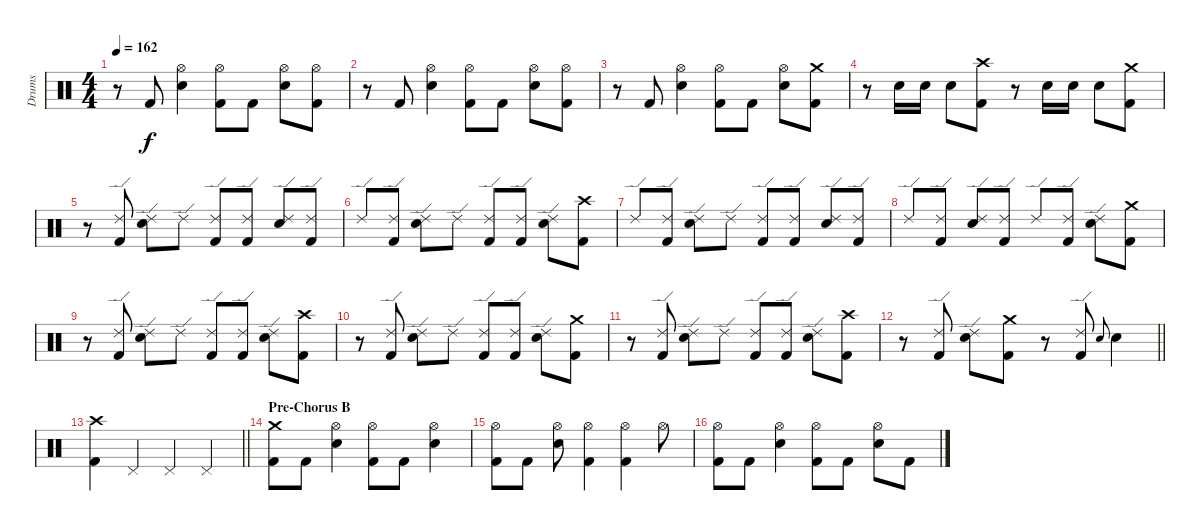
\track ("Drums" "Drums") {instrument percussion}
\staff {score}
\articulation defaults
\ts (4 4)
\tempo 162
\clef neutral
\ks c
r.8{dy f} "Kick (hit) 2".8 ("Hi-Hat (open)" "Snare (hit) 2").4 ("Hi-Hat (open)" "Kick (hit) 2").8 "Kick (hit) 2".8 ("Hi-Hat (open)" "Snare (hit) 2").8 ("Hi-Hat (open)" "Kick (hit) 2").8 |
r.8 "Kick (hit) 2".8 ("Hi-Hat (open)" "Snare (hit) 2").4 ("Hi-Hat (open)" "Kick (hit) 2").8 "Kick (hit) 2".8 ("Hi-Hat (open)" "Snare (hit) 2").8 ("Hi-Hat (open)" "Kick (hit) 2").8 |
r.8 "Kick (hit) 2".8 ("Hi-Hat (open)" "Snare (hit) 2").4 ("Hi-Hat (open)" "Kick (hit) 2").8 "Kick (hit) 2".8 ("Hi-Hat (open)" "Snare (hit) 2").8 ("Crash medium (hit)" "Kick (hit) 2").8 |
r.8 "Snare (hit) 2".16 "Snare (hit) 2".16 "Snare (hit) 2".8 ("Crash high (hit)" "Kick (hit) 2").8 r.8 "Snare (hit) 2".16 "Snare (hit) 2".16 "Snare (hit) 2".8 ("Crash medium (hit)" "Kick (hit) 2").8 |
r.8 ("Ride (edge) 2" "Kick (hit) 2").8 ("Ride (edge) 2" "Snare (hit) 2").8 "Ride (edge) 2".8 ("Ride (edge) 2" "Kick (hit) 2").8 ("Ride (edge) 2" "Kick (hit) 2").8 ("Ride (edge) 2" "Snare (hit) 2").8 ("Ride (edge) 2" "Kick (hit) 2").8 |
"Ride (edge) 2".8 ("Ride (edge) 2" "Kick (hit) 2").8 ("Ride (edge) 2" "Snare (hit) 2").8 "Ride (edge) 2".8 ("Ride (edge) 2" "Kick (hit) 2").8 ("Ride (edge) 2" "Kick (hit) 2").8 ("Ride (edge) 2" "Snare (hit) 2").8 ("Crash high (hit)" "Kick (hit) 2").8 |
"Ride (edge) 2".8 ("Ride (edge) 2" "Kick (hit) 2").8 ("Ride (edge) 2" "Snare (hit) 2").8 "Ride (edge) 2".8 ("Ride (edge) 2" "Kick (hit) 2").8 ("Ride (edge) 2" "Kick (hit) 2").8 ("Ride (edge) 2" "Snare (hit) 2").8 ("Ride (edge) 2" "Kick (hit) 2").8 |
"Ride (edge) 2".8 ("Ride (edge) 2" "Kick (hit) 2").8 ("Ride (edge) 2" "Snare (hit) 2").8 ("Ride (edge) 2" "Kick (hit) 2").8 "Ride (edge) 2".8 ("Ride (edge) 2" "Kick (hit) 2").8 ("Ride (edge) 2" "Snare (hit) 2").8 ("Crash medium (hit)" "Kick (hit) 2").8 |
r.8 ("Ride (edge) 2" "Kick (hit) 2").8 ("Ride (edge) 2" "Snare (hit) 2").8 "Ride (edge) 2".8 ("Ride (edge) 2" "Kick (hit) 2").8 ("Ride (edge) 2" "Kick (hit) 2").8 ("Ride (edge) 2" "Snare (hit) 2").8 ("Crash high (hit)" "Kick (hit) 2").8 |
r.8 ("Ride (edge) 2" "Kick (hit) 2").8 ("Ride (edge) 2" "Snare (hit) 2").8 "Ride (edge) 2".8 ("Ride (edge) 2" "Kick (hit) 2").8 ("Ride (edge) 2" "Kick (hit) 2").8 ("Ride (edge) 2" "Snare (hit) 2").8 ("Crash medium (hit)" "Kick (hit) 2").8 |
r.8 ("Ride (edge) 2" "Kick (hit) 2").8 ("Ride (edge) 2" "Snare (hit) 2").8 "Ride (edge) 2".8 ("Ride (edge) 2" "Kick (hit) 2").8 ("Ride (edge) 2" "Kick (hit) 2").8 ("Ride (edge) 2" "Snare (hit) 2").8 ("Crash high (hit)" "Kick (hit) 2").8 |
\barLineRight lightlight
r.8 ("Ride (edge) 2" "Kick (hit) 2").8 ("Ride (edge) 2" "Snare (hit) 2").8 ("Crash medium (hit)" "Kick (hit) 2").8 r.8 ("Ride (edge) 2" "Kick (hit) 2").8 "Snare (hit) 2".8{gr onbeat} "Snare (hit) 2".4 |
\section ("" "")
\barLineRight lightlight
("Crash high (hit)" "Kick (hit) 2").4 "Pedal Hi-Hat (hit)".4 "Pedal Hi-Hat (hit)".4 "Pedal Hi-Hat (hit)".4 |
\section ("" "Pre-Chorus B")
("Crash medium (hit)" "Kick (hit) 2").8 "Kick (hit) 2".8 ("Hi-Hat (open)" "Snare (hit) 2").4 ("Hi-Hat (open)" "Kick (hit) 2").8 "Kick (hit) 2".8 ("Hi-Hat (open)" "Snare (hit) 2").4 |
("Hi-Hat (open)" "Kick (hit) 2").8 "Kick (hit) 2".8 ("Hi-Hat (open)" "Snare (hit) 2").8 ("Hi-Hat (open)" "Kick (hit) 2").4 ("Hi-Hat (open)" "Kick (hit) 2").4 "Hi-Hat (open)".8 |
("Hi-Hat (open)" "Kick (hit) 2").8 "Kick (hit) 2".8 ("Hi-Hat (open)" "Snare (hit) 2").4 ("Hi-Hat (open)" "Kick (hit) 2").8 "Kick (hit) 2".8 ("Hi-Hat (open)" "Snare (hit) 2").8 "Kick (hit) 2".8
